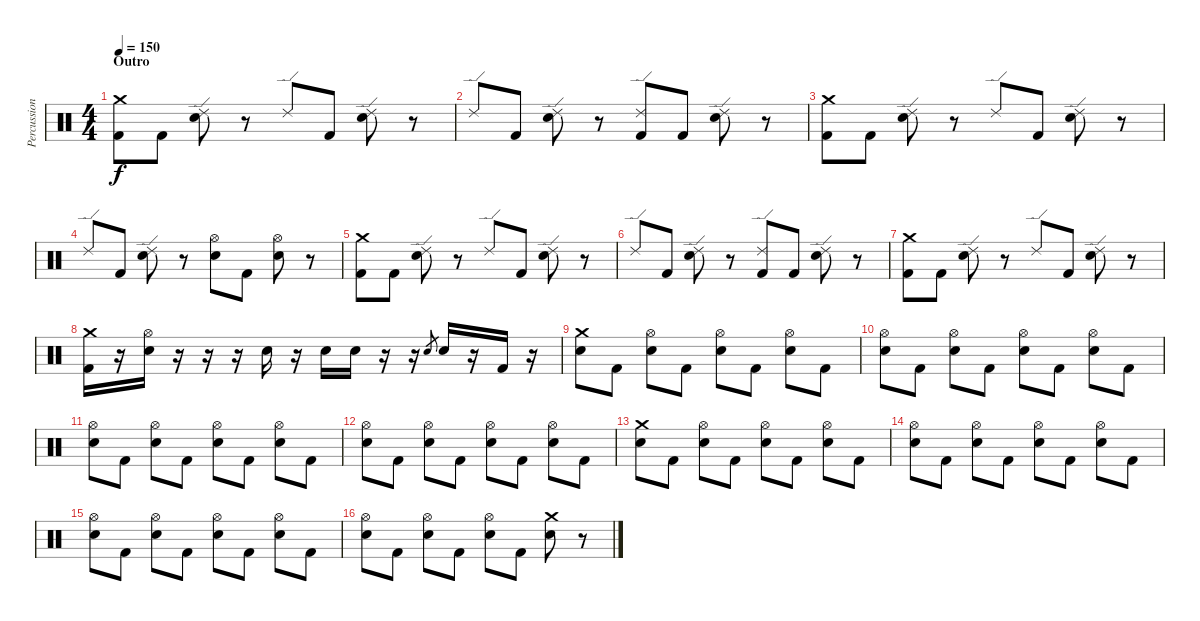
\track ("Percussion" "Percussion") {instrument percussion}
\staff {score}
\articulation defaults
\ts (4 4)
\section ("" "Outro")
\tempo 150
\clef neutral
\ks c
("Crash medium (hit)" "Kick (hit) 2").8{dy f} "Kick (hit) 2".8 ("Ride (edge) 2" "Electric Snare (hit)").8 r.8 "Ride (edge) 2".8 "Kick (hit) 2".8 ("Ride (edge) 2" "Electric Snare (hit)").8 r.8 |
"Ride (edge) 2".8 "Kick (hit) 2".8 ("Ride (edge) 2" "Electric Snare (hit)").8 r.8 ("Ride (edge) 2" "Kick (hit) 2").8 "Kick (hit) 2".8 ("Ride (edge) 2" "Electric Snare (hit)").8 r.8 |
("Crash medium (hit)" "Kick (hit) 2").8 "Kick (hit) 2".8 ("Ride (edge) 2" "Electric Snare (hit)").8 r.8 "Ride (edge) 2".8 "Kick (hit) 2".8 ("Ride (edge) 2" "Electric Snare (hit)").8 r.8 |
"Ride (edge) 2".8 "Kick (hit) 2".8 ("Ride (edge) 2" "Electric Snare (hit)").8 r.8 ("Hi-Hat (open)" "Electric Snare (hit)").8 "Kick (hit) 2".8 ("Hi-Hat (open)" "Electric Snare (hit)").8 r.8 |
("Crash medium (hit)" "Kick (hit) 2").8 "Kick (hit) 2".8 ("Ride (edge) 2" "Electric Snare (hit)").8 r.8 "Ride (edge) 2".8 "Kick (hit) 2".8 ("Ride (edge) 2" "Electric Snare (hit)").8 r.8 |
"Ride (edge) 2".8 "Kick (hit) 2".8 ("Ride (edge) 2" "Electric Snare (hit)").8 r.8 ("Ride (edge) 2" "Kick (hit) 2").8 "Kick (hit) 2".8 ("Ride (edge) 2" "Electric Snare (hit)").8 r.8 |
("Crash medium (hit)" "Kick (hit) 2").8 "Kick (hit) 2".8 ("Ride (edge) 2" "Electric Snare (hit)").8 r.8 "Ride (edge) 2".8 "Kick (hit) 2".8 ("Ride (edge) 2" "Electric Snare (hit)").8 r.8 |
("Crash medium (hit)" "Kick (hit) 2").16 r.16 ("Hi-Hat (open)" "Electric Snare (hit)").16 r.16 r.16 r.16 "Electric Snare (hit)".16 r.16 "Electric Snare (hit)".16 "Electric Snare (hit)".16 r.16 r.16 "Electric Snare (hit)".8{gr} "Electric Snare (hit)".16 r.16 "Kick (hit) 2".16 r.16 |
("Crash medium (hit)" "Electric Snare (hit)").8 "Kick (hit) 2".8 ("Hi-Hat (open)" "Electric Snare (hit)").8 "Kick (hit) 2".8 ("Hi-Hat (open)" "Electric Snare (hit)").8 "Kick (hit) 2".8 ("Hi-Hat (open)" "Electric Snare (hit)").8 "Kick (hit) 2".8 |
("Hi-Hat (open)" "Electric Snare (hit)").8 "Kick (hit) 2".8 ("Hi-Hat (open)" "Electric Snare (hit)").8 "Kick (hit) 2".8 ("Hi-Hat (open)" "Electric Snare (hit)").8 "Kick (hit) 2".8 ("Hi-Hat (open)" "Electric Snare (hit)").8 "Kick (hit) 2".8 |
("Hi-Hat (open)" "Electric Snare (hit)").8 "Kick (hit) 2".8 ("Hi-Hat (open)" "Electric Snare (hit)").8 "Kick (hit) 2".8 ("Hi-Hat (open)" "Electric Snare (hit)").8 "Kick (hit) 2".8 ("Hi-Hat (open)" "Electric Snare (hit)").8 "Kick (hit) 2".8 |
("Hi-Hat (open)" "Electric Snare (hit)").8 "Kick (hit) 2".8 ("Hi-Hat (open)" "Electric Snare (hit)").8 "Kick (hit) 2".8 ("Hi-Hat (open)" "Electric Snare (hit)").8 "Kick (hit) 2".8 ("Hi-Hat (open)" "Electric Snare (hit)").8 "Kick (hit) 2".8 |
("Crash medium (hit)" "Electric Snare (hit)").8 "Kick (hit) 2".8 ("Hi-Hat (open)" "Electric Snare (hit)").8 "Kick (hit) 2".8 ("Hi-Hat (open)" "Electric Snare (hit)").8 "Kick (hit) 2".8 ("Hi-Hat (open)" "Electric Snare (hit)").8 "Kick (hit) 2".8 |
("Hi-Hat (open)" "Electric Snare (hit)").8 "Kick (hit) 2".8 ("Hi-Hat (open)" "Electric Snare (hit)").8 "Kick (hit) 2".8 ("Hi-Hat (open)" "Electric Snare (hit)").8 "Kick (hit) 2".8 ("Hi-Hat (open)" "Electric Snare (hit)").8 "Kick (hit) 2".8 |
("Hi-Hat (open)" "Electric Snare (hit)").8 "Kick (hit) 2".8 ("Hi-Hat (open)" "Electric Snare (hit)").8 "Kick (hit) 2".8 ("Hi-Hat (open)" "Electric Snare (hit)").8 "Kick (hit) 2".8 ("Hi-Hat (open)" "Electric Snare (hit)").8 "Kick (hit) 2".8 |
("Hi-Hat (open)" "Electric Snare (hit)").8 "Kick (hit) 2".8 ("Hi-Hat (open)" "Electric Snare (hit)").8 "Kick (hit) 2".8 ("Hi-Hat (open)" "Electric Snare (hit)").8 "Kick (hit) 2".8 ("Crash medium (hit)" "Electric Snare (hit)").8 r.8
